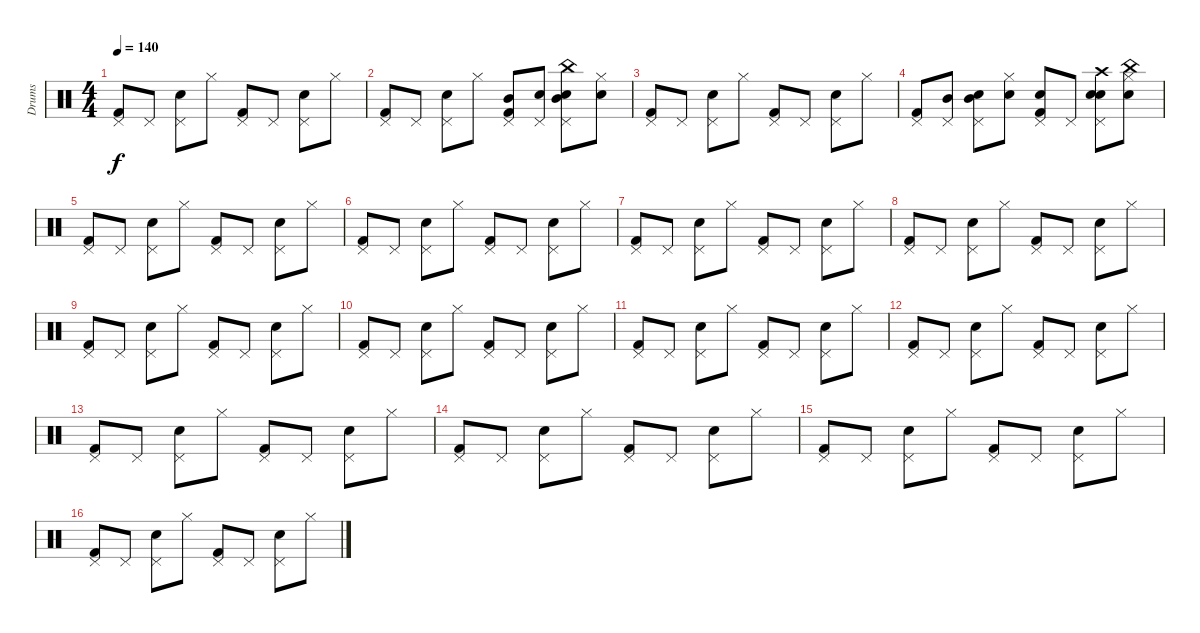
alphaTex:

\track ("Drums" "Drums") {instrument percussion}
\staff {score}
\articulation defaults
\ts (4 4)
\tempo 140
\clef neutral
\ks c
("Kick (hit) 2" "Pedal Hi-Hat (hit)").8{dy f} "Pedal Hi-Hat (hit)".8 ("Snare (hit) 2" "Pedal Hi-Hat (hit)").8 "Hi-Hat (closed)".8 ("Kick (hit) 2" "Pedal Hi-Hat (hit)").8 "Pedal Hi-Hat (hit)".8 ("Snare (hit) 2" "Pedal Hi-Hat (hit)").8 "Hi-Hat (closed)".8 |
("Kick (hit) 2" "Pedal Hi-Hat (hit)").8 "Pedal Hi-Hat (hit)".8 ("Snare (hit) 2" "Pedal Hi-Hat (hit)").8 "Hi-Hat (closed)".8 ("Kick (hit) 2" "Mid Tom (hit)" "Pedal Hi-Hat (hit)").8 ("Hand Clap (hit)" "Pedal Hi-Hat (hit)").8 ("Snare (hit) 2" "China (hit)" "Mid Tom (hit)" "Pedal Hi-Hat (hit)").8 ("Hand Clap (hit)" "Hi-Hat (closed)").8 |
("Kick (hit) 2" "Pedal Hi-Hat (hit)").8 "Pedal Hi-Hat (hit)".8 ("Snare (hit) 2" "Pedal Hi-Hat (hit)").8 "Hi-Hat (closed)".8 ("Kick (hit) 2" "Pedal Hi-Hat (hit)").8 "Pedal Hi-Hat (hit)".8 ("Snare (hit) 2" "Pedal Hi-Hat (hit)").8 "Hi-Hat (closed)".8 |
("Kick (hit) 2" "Pedal Hi-Hat (hit)").8 ("Mid Tom (hit)" "Pedal Hi-Hat (hit)").8 ("Snare (hit) 2" "Mid Tom (hit)" "Pedal Hi-Hat (hit)").8 ("Snare (hit) 2" "Hi-Hat (closed)").8 ("Kick (hit) 2" "Snare (hit) 2" "Pedal Hi-Hat (hit)").8 "Pedal Hi-Hat (hit)".8 ("Snare (hit) 2" "Snare (hit) 2" "Pedal Hi-Hat (hit)" "Crash high (hit)").8 ("Snare (hit) 2" "Hi-Hat (closed)" "China (hit)").8 |
("Kick (hit) 2" "Pedal Hi-Hat (hit)").8 "Pedal Hi-Hat (hit)".8 ("Snare (hit) 2" "Pedal Hi-Hat (hit)").8 "Hi-Hat (closed)".8 ("Kick (hit) 2" "Pedal Hi-Hat (hit)").8 "Pedal Hi-Hat (hit)".8 ("Snare (hit) 2" "Pedal Hi-Hat (hit)").8 "Hi-Hat (closed)".8 |
("Kick (hit) 2" "Pedal Hi-Hat (hit)").8 "Pedal Hi-Hat (hit)".8 ("Snare (hit) 2" "Pedal Hi-Hat (hit)").8 "Hi-Hat (closed)".8 ("Kick (hit) 2" "Pedal Hi-Hat (hit)").8 "Pedal Hi-Hat (hit)".8 ("Snare (hit) 2" "Pedal Hi-Hat (hit)").8 "Hi-Hat (closed)".8 |
("Kick (hit) 2" "Pedal Hi-Hat (hit)").8 "Pedal Hi-Hat (hit)".8 ("Snare (hit) 2" "Pedal Hi-Hat (hit)").8 "Hi-Hat (closed)".8 ("Kick (hit) 2" "Pedal Hi-Hat (hit)").8 "Pedal Hi-Hat (hit)".8 ("Snare (hit) 2" "Pedal Hi-Hat (hit)").8 "Hi-Hat (closed)".8 |
("Kick (hit) 2" "Pedal Hi-Hat (hit)").8 "Pedal Hi-Hat (hit)".8 ("Snare (hit) 2" "Pedal Hi-Hat (hit)").8 "Hi-Hat (closed)".8 ("Kick (hit) 2" "Pedal Hi-Hat (hit)").8 "Pedal Hi-Hat (hit)".8 ("Snare (hit) 2" "Pedal Hi-Hat (hit)").8 "Hi-Hat (closed)".8 |
("Kick (hit) 2" "Pedal Hi-Hat (hit)").8 "Pedal Hi-Hat (hit)".8 ("Snare (hit) 2" "Pedal Hi-Hat (hit)").8 "Hi-Hat (closed)".8 ("Kick (hit) 2" "Pedal Hi-Hat (hit)").8 "Pedal Hi-Hat (hit)".8 ("Snare (hit) 2" "Pedal Hi-Hat (hit)").8 "Hi-Hat (closed)".8 |
("Kick (hit) 2" "Pedal Hi-Hat (hit)").8 "Pedal Hi-Hat (hit)".8 ("Snare (hit) 2" "Pedal Hi-Hat (hit)").8 "Hi-Hat (closed)".8 ("Kick (hit) 2" "Pedal Hi-Hat (hit)").8 "Pedal Hi-Hat (hit)".8 ("Snare (hit) 2" "Pedal Hi-Hat (hit)").8 "Hi-Hat (closed)".8 |
("Kick (hit) 2" "Pedal Hi-Hat (hit)").8 "Pedal Hi-Hat (hit)".8 ("Snare (hit) 2" "Pedal Hi-Hat (hit)").8 "Hi-Hat (closed)".8 ("Kick (hit) 2" "Pedal Hi-Hat (hit)").8 "Pedal Hi-Hat (hit)".8 ("Snare (hit) 2" "Pedal Hi-Hat (hit)").8 "Hi-Hat (closed)".8 |
("Kick (hit) 2" "Pedal Hi-Hat (hit)").8 "Pedal Hi-Hat (hit)".8 ("Snare (hit) 2" "Pedal Hi-Hat (hit)").8 "Hi-Hat (closed)".8 ("Kick (hit) 2" "Pedal Hi-Hat (hit)").8 "Pedal Hi-Hat (hit)".8 ("Snare (hit) 2" "Pedal Hi-Hat (hit)").8 "Hi-Hat (closed)".8 |
("Kick (hit) 2" "Pedal Hi-Hat (hit)").8 "Pedal Hi-Hat (hit)".8 ("Snare (hit) 2" "Pedal Hi-Hat (hit)").8 "Hi-Hat (closed)".8 ("Kick (hit) 2" "Pedal Hi-Hat (hit)").8 "Pedal Hi-Hat (hit)".8 ("Snare (hit) 2" "Pedal Hi-Hat (hit)").8 "Hi-Hat (closed)".8 |
("Kick (hit) 2" "Pedal Hi-Hat (hit)").8 "Pedal Hi-Hat (hit)".8 ("Snare (hit) 2" "Pedal Hi-Hat (hit)").8 "Hi-Hat (closed)".8 ("Kick (hit) 2" "Pedal Hi-Hat (hit)").8 "Pedal Hi-Hat (hit)".8 ("Snare (hit) 2" "Pedal Hi-Hat (hit)").8 "Hi-Hat (closed)".8 |
("Kick (hit) 2" "Pedal Hi-Hat (hit)").8 "Pedal Hi-Hat (hit)".8 ("Snare (hit) 2" "Pedal Hi-Hat (hit)").8 "Hi-Hat (closed)".8 ("Kick (hit) 2" "Pedal Hi-Hat (hit)").8 "Pedal Hi-Hat (hit)".8 ("Snare (hit) 2" "Pedal Hi-Hat (hit)").8 "Hi-Hat (closed)".8 |
("Kick (hit) 2" "Pedal Hi-Hat (hit)").8 "Pedal Hi-Hat (hit)".8 ("Snare (hit) 2" "Pedal Hi-Hat (hit)").8 "Hi-Hat (closed)".8 ("Kick (hit) 2" "Pedal Hi-Hat (hit)").8 "Pedal Hi-Hat (hit)".8 ("Snare (hit) 2" "Pedal Hi-Hat (hit)").8 "Hi-Hat (closed)".8
